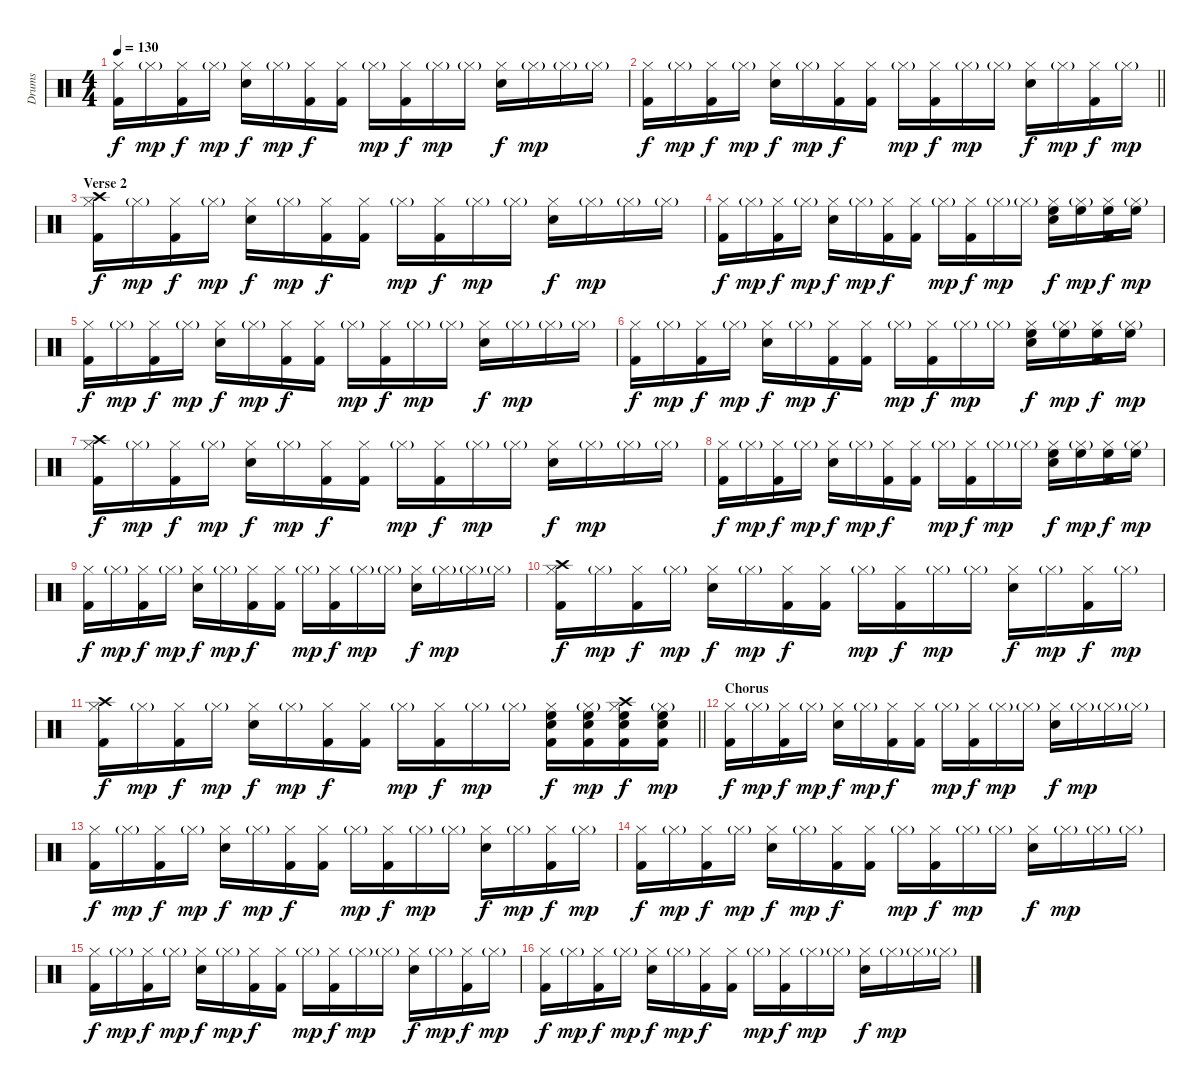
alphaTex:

\track ("Drums" "Drums") {instrument percussion}
\staff {score}
\articulation defaults
\ts (4 4)
\tempo 130
\clef neutral
\ks c
("Hi-Hat (closed)" "Kick (hit) 2").16{dy f} "Hi-Hat (closed)"{g}.16{dy mp} ("Hi-Hat (closed)" "Kick (hit) 2").16{dy f} "Hi-Hat (closed)"{g}.16{dy mp} ("Hi-Hat (closed)" "Snare (hit) 2").16{dy f} "Hi-Hat (closed)"{g}.16{dy mp} ("Hi-Hat (closed)" "Kick (hit) 2").16{dy f} ("Hi-Hat (closed)" "Kick (hit) 2").16 "Hi-Hat (closed)"{g}.16{dy mp} ("Hi-Hat (closed)" "Kick (hit) 2").16{dy f} "Hi-Hat (closed)"{g}.16{dy mp} "Hi-Hat (closed)"{g}.16 ("Hi-Hat (closed)" "Snare (hit) 2").16{dy f} "Hi-Hat (closed)"{g}.16{dy mp} "Hi-Hat (closed)"{g}.16 "Hi-Hat (closed)"{g}.16 |
\barLineRight lightlight
("Hi-Hat (closed)" "Kick (hit) 2").16{dy f} "Hi-Hat (closed)"{g}.16{dy mp} ("Hi-Hat (closed)" "Kick (hit) 2").16{dy f} "Hi-Hat (closed)"{g}.16{dy mp} ("Hi-Hat (closed)" "Snare (hit) 2").16{dy f} "Hi-Hat (closed)"{g}.16{dy mp} ("Hi-Hat (closed)" "Kick (hit) 2").16{dy f} ("Hi-Hat (closed)" "Kick (hit) 2").16 "Hi-Hat (closed)"{g}.16{dy mp} ("Hi-Hat (closed)" "Kick (hit) 2").16{dy f} "Hi-Hat (closed)"{g}.16{dy mp} "Hi-Hat (closed)"{g}.16 ("Hi-Hat (closed)" "Snare (hit) 2").16{dy f} "Hi-Hat (closed)"{g}.16{dy mp} ("Hi-Hat (closed)" "Kick (hit) 2").16{dy f} "Hi-Hat (closed)"{g}.16{dy mp} |
\section ("" "Verse 2")
("Hi-Hat (closed)" "Kick (hit) 2" "Crash high (hit)").16{dy f} "Hi-Hat (closed)"{g}.16{dy mp} ("Hi-Hat (closed)" "Kick (hit) 2").16{dy f} "Hi-Hat (closed)"{g}.16{dy mp} ("Hi-Hat (closed)" "Snare (hit) 2").16{dy f} "Hi-Hat (closed)"{g}.16{dy mp} ("Hi-Hat (closed)" "Kick (hit) 2").16{dy f} ("Hi-Hat (closed)" "Kick (hit) 2").16 "Hi-Hat (closed)"{g}.16{dy mp} ("Hi-Hat (closed)" "Kick (hit) 2").16{dy f} "Hi-Hat (closed)"{g}.16{dy mp} "Hi-Hat (closed)"{g}.16 ("Hi-Hat (closed)" "Snare (hit) 2").16{dy f} "Hi-Hat (closed)"{g}.16{dy mp} "Hi-Hat (closed)"{g}.16 "Hi-Hat (closed)"{g}.16 |
("Hi-Hat (closed)" "Kick (hit) 2").16{dy f} "Hi-Hat (closed)"{g}.16{dy mp} ("Hi-Hat (closed)" "Kick (hit) 2").16{dy f} "Hi-Hat (closed)"{g}.16{dy mp} ("Hi-Hat (closed)" "Snare (hit) 2").16{dy f} "Hi-Hat (closed)"{g}.16{dy mp} ("Hi-Hat (closed)" "Kick (hit) 2").16{dy f} ("Hi-Hat (closed)" "Kick (hit) 2").16 "Hi-Hat (closed)"{g}.16{dy mp} ("Hi-Hat (closed)" "Kick (hit) 2").16{dy f} "Hi-Hat (closed)"{g}.16{dy mp} "Hi-Hat (closed)"{g}.16 ("Hi-Hat (closed)" "Snare (hit) 2" "High Floor Tom (hit)").16{dy f} ("Hi-Hat (closed)"{g} "High Floor Tom (hit)").16{dy mp} ("Hi-Hat (closed)" "Kick (hit) 2" "High Floor Tom (hit)").16{dy f} ("Hi-Hat (closed)"{g} "High Floor Tom (hit)").16{dy mp} |
("Hi-Hat (closed)" "Kick (hit) 2").16{dy f} "Hi-Hat (closed)"{g}.16{dy mp} ("Hi-Hat (closed)" "Kick (hit) 2").16{dy f} "Hi-Hat (closed)"{g}.16{dy mp} ("Hi-Hat (closed)" "Snare (hit) 2").16{dy f} "Hi-Hat (closed)"{g}.16{dy mp} ("Hi-Hat (closed)" "Kick (hit) 2").16{dy f} ("Hi-Hat (closed)" "Kick (hit) 2").16 "Hi-Hat (closed)"{g}.16{dy mp} ("Hi-Hat (closed)" "Kick (hit) 2").16{dy f} "Hi-Hat (closed)"{g}.16{dy mp} "Hi-Hat (closed)"{g}.16 ("Hi-Hat (closed)" "Snare (hit) 2").16{dy f} "Hi-Hat (closed)"{g}.16{dy mp} "Hi-Hat (closed)"{g}.16 "Hi-Hat (closed)"{g}.16 |
("Hi-Hat (closed)" "Kick (hit) 2").16{dy f} "Hi-Hat (closed)"{g}.16{dy mp} ("Hi-Hat (closed)" "Kick (hit) 2").16{dy f} "Hi-Hat (closed)"{g}.16{dy mp} ("Hi-Hat (closed)" "Snare (hit) 2").16{dy f} "Hi-Hat (closed)"{g}.16{dy mp} ("Hi-Hat (closed)" "Kick (hit) 2").16{dy f} ("Hi-Hat (closed)" "Kick (hit) 2").16 "Hi-Hat (closed)"{g}.16{dy mp} ("Hi-Hat (closed)" "Kick (hit) 2").16{dy f} "Hi-Hat (closed)"{g}.16{dy mp} "Hi-Hat (closed)"{g}.16 ("Hi-Hat (closed)" "Snare (hit) 2" "High Floor Tom (hit)").16{dy f} ("Hi-Hat (closed)"{g} "High Floor Tom (hit)").16{dy mp} ("Hi-Hat (closed)" "Kick (hit) 2" "High Floor Tom (hit)").16{dy f} ("Hi-Hat (closed)"{g} "High Floor Tom (hit)").16{dy mp} |
("Hi-Hat (closed)" "Kick (hit) 2" "Crash high (hit)").16{dy f} "Hi-Hat (closed)"{g}.16{dy mp} ("Hi-Hat (closed)" "Kick (hit) 2").16{dy f} "Hi-Hat (closed)"{g}.16{dy mp} ("Hi-Hat (closed)" "Snare (hit) 2").16{dy f} "Hi-Hat (closed)"{g}.16{dy mp} ("Hi-Hat (closed)" "Kick (hit) 2").16{dy f} ("Hi-Hat (closed)" "Kick (hit) 2").16 "Hi-Hat (closed)"{g}.16{dy mp} ("Hi-Hat (closed)" "Kick (hit) 2").16{dy f} "Hi-Hat (closed)"{g}.16{dy mp} "Hi-Hat (closed)"{g}.16 ("Hi-Hat (closed)" "Snare (hit) 2").16{dy f} "Hi-Hat (closed)"{g}.16{dy mp} "Hi-Hat (closed)"{g}.16 "Hi-Hat (closed)"{g}.16 |
("Hi-Hat (closed)" "Kick (hit) 2").16{dy f} "Hi-Hat (closed)"{g}.16{dy mp} ("Hi-Hat (closed)" "Kick (hit) 2").16{dy f} "Hi-Hat (closed)"{g}.16{dy mp} ("Hi-Hat (closed)" "Snare (hit) 2").16{dy f} "Hi-Hat (closed)"{g}.16{dy mp} ("Hi-Hat (closed)" "Kick (hit) 2").16{dy f} ("Hi-Hat (closed)" "Kick (hit) 2").16 "Hi-Hat (closed)"{g}.16{dy mp} ("Hi-Hat (closed)" "Kick (hit) 2").16{dy f} "Hi-Hat (closed)"{g}.16{dy mp} "Hi-Hat (closed)"{g}.16 ("Hi-Hat (closed)" "Snare (hit) 2" "High Floor Tom (hit)").16{dy f} ("Hi-Hat (closed)"{g} "High Floor Tom (hit)").16{dy mp} ("Hi-Hat (closed)" "Kick (hit) 2" "High Floor Tom (hit)").16{dy f} ("Hi-Hat (closed)"{g} "High Floor Tom (hit)").16{dy mp} |
("Hi-Hat (closed)" "Kick (hit) 2").16{dy f} "Hi-Hat (closed)"{g}.16{dy mp} ("Hi-Hat (closed)" "Kick (hit) 2").16{dy f} "Hi-Hat (closed)"{g}.16{dy mp} ("Hi-Hat (closed)" "Snare (hit) 2").16{dy f} "Hi-Hat (closed)"{g}.16{dy mp} ("Hi-Hat (closed)" "Kick (hit) 2").16{dy f} ("Hi-Hat (closed)" "Kick (hit) 2").16 "Hi-Hat (closed)"{g}.16{dy mp} ("Hi-Hat (closed)" "Kick (hit) 2").16{dy f} "Hi-Hat (closed)"{g}.16{dy mp} "Hi-Hat (closed)"{g}.16 ("Hi-Hat (closed)" "Snare (hit) 2").16{dy f} "Hi-Hat (closed)"{g}.16{dy mp} "Hi-Hat (closed)"{g}.16 "Hi-Hat (closed)"{g}.16 |
("Hi-Hat (closed)" "Kick (hit) 2" "Crash high (hit)").16{dy f} "Hi-Hat (closed)"{g}.16{dy mp} ("Hi-Hat (closed)" "Kick (hit) 2").16{dy f} "Hi-Hat (closed)"{g}.16{dy mp} ("Hi-Hat (closed)" "Snare (hit) 2").16{dy f} "Hi-Hat (closed)"{g}.16{dy mp} ("Hi-Hat (closed)" "Kick (hit) 2").16{dy f} ("Hi-Hat (closed)" "Kick (hit) 2").16 "Hi-Hat (closed)"{g}.16{dy mp} ("Hi-Hat (closed)" "Kick (hit) 2").16{dy f} "Hi-Hat (closed)"{g}.16{dy mp} "Hi-Hat (closed)"{g}.16 ("Hi-Hat (closed)" "Snare (hit) 2").16{dy f} "Hi-Hat (closed)"{g}.16{dy mp} ("Hi-Hat (closed)" "Kick (hit) 2").16{dy f} "Hi-Hat (closed)"{g}.16{dy mp} |
\barLineRight lightlight
("Hi-Hat (closed)" "Kick (hit) 2" "Crash high (hit)").16{dy f} "Hi-Hat (closed)"{g}.16{dy mp} ("Hi-Hat (closed)" "Kick (hit) 2").16{dy f} "Hi-Hat (closed)"{g}.16{dy mp} ("Hi-Hat (closed)" "Snare (hit) 2").16{dy f} "Hi-Hat (closed)"{g}.16{dy mp} ("Hi-Hat (closed)" "Kick (hit) 2").16{dy f} ("Hi-Hat (closed)" "Kick (hit) 2").16 "Hi-Hat (closed)"{g}.16{dy mp} ("Hi-Hat (closed)" "Kick (hit) 2").16{dy f} "Hi-Hat (closed)"{g}.16{dy mp} "Hi-Hat (closed)"{g}.16 ("Hi-Hat (closed)" "Snare (hit) 2" "High Floor Tom (hit)" "Kick (hit) 2").16{dy f} ("Hi-Hat (closed)"{g} "Snare (hit) 2" "High Floor Tom (hit)" "Kick (hit) 2").16{dy mp} ("Hi-Hat (closed)" "Snare (hit) 2" "High Floor Tom (hit)" "Kick (hit) 2" "Crash high (hit)").16{dy f} ("Hi-Hat (closed)"{g} "Snare (hit) 2" "High Floor Tom (hit)" "Kick (hit) 2").16{dy mp} |
\section ("" "Chorus")
("Hi-Hat (closed)" "Kick (hit) 2").16{dy f} "Hi-Hat (closed)"{g}.16{dy mp} ("Hi-Hat (closed)" "Kick (hit) 2").16{dy f} "Hi-Hat (closed)"{g}.16{dy mp} ("Hi-Hat (closed)" "Snare (hit) 2").16{dy f} "Hi-Hat (closed)"{g}.16{dy mp} ("Hi-Hat (closed)" "Kick (hit) 2").16{dy f} ("Hi-Hat (closed)" "Kick (hit) 2").16 "Hi-Hat (closed)"{g}.16{dy mp} ("Hi-Hat (closed)" "Kick (hit) 2").16{dy f} "Hi-Hat (closed)"{g}.16{dy mp} "Hi-Hat (closed)"{g}.16 ("Hi-Hat (closed)" "Snare (hit) 2").16{dy f} "Hi-Hat (closed)"{g}.16{dy mp} "Hi-Hat (closed)"{g}.16 "Hi-Hat (closed)"{g}.16 |
("Hi-Hat (closed)" "Kick (hit) 2").16{dy f} "Hi-Hat (closed)"{g}.16{dy mp} ("Hi-Hat (closed)" "Kick (hit) 2").16{dy f} "Hi-Hat (closed)"{g}.16{dy mp} ("Hi-Hat (closed)" "Snare (hit) 2").16{dy f} "Hi-Hat (closed)"{g}.16{dy mp} ("Hi-Hat (closed)" "Kick (hit) 2").16{dy f} ("Hi-Hat (closed)" "Kick (hit) 2").16 "Hi-Hat (closed)"{g}.16{dy mp} ("Hi-Hat (closed)" "Kick (hit) 2").16{dy f} "Hi-Hat (closed)"{g}.16{dy mp} "Hi-Hat (closed)"{g}.16 ("Hi-Hat (closed)" "Snare (hit) 2").16{dy f} "Hi-Hat (closed)"{g}.16{dy mp} ("Hi-Hat (closed)" "Kick (hit) 2").16{dy f} "Hi-Hat (closed)"{g}.16{dy mp} |
("Hi-Hat (closed)" "Kick (hit) 2").16{dy f} "Hi-Hat (closed)"{g}.16{dy mp} ("Hi-Hat (closed)" "Kick (hit) 2").16{dy f} "Hi-Hat (closed)"{g}.16{dy mp} ("Hi-Hat (closed)" "Snare (hit) 2").16{dy f} "Hi-Hat (closed)"{g}.16{dy mp} ("Hi-Hat (closed)" "Kick (hit) 2").16{dy f} ("Hi-Hat (closed)" "Kick (hit) 2").16 "Hi-Hat (closed)"{g}.16{dy mp} ("Hi-Hat (closed)" "Kick (hit) 2").16{dy f} "Hi-Hat (closed)"{g}.16{dy mp} "Hi-Hat (closed)"{g}.16 ("Hi-Hat (closed)" "Snare (hit) 2").16{dy f} "Hi-Hat (closed)"{g}.16{dy mp} "Hi-Hat (closed)"{g}.16 "Hi-Hat (closed)"{g}.16 |
("Hi-Hat (closed)" "Kick (hit) 2").16{dy f} "Hi-Hat (closed)"{g}.16{dy mp} ("Hi-Hat (closed)" "Kick (hit) 2").16{dy f} "Hi-Hat (closed)"{g}.16{dy mp} ("Hi-Hat (closed)" "Snare (hit) 2").16{dy f} "Hi-Hat (closed)"{g}.16{dy mp} ("Hi-Hat (closed)" "Kick (hit) 2").16{dy f} ("Hi-Hat (closed)" "Kick (hit) 2").16 "Hi-Hat (closed)"{g}.16{dy mp} ("Hi-Hat (closed)" "Kick (hit) 2").16{dy f} "Hi-Hat (closed)"{g}.16{dy mp} "Hi-Hat (closed)"{g}.16 ("Hi-Hat (closed)" "Snare (hit) 2").16{dy f} "Hi-Hat (closed)"{g}.16{dy mp} ("Hi-Hat (closed)" "Kick (hit) 2").16{dy f} "Hi-Hat (closed)"{g}.16{dy mp} |
("Hi-Hat (closed)" "Kick (hit) 2").16{dy f} "Hi-Hat (closed)"{g}.16{dy mp} ("Hi-Hat (closed)" "Kick (hit) 2").16{dy f} "Hi-Hat (closed)"{g}.16{dy mp} ("Hi-Hat (closed)" "Snare (hit) 2").16{dy f} "Hi-Hat (closed)"{g}.16{dy mp} ("Hi-Hat (closed)" "Kick (hit) 2").16{dy f} ("Hi-Hat (closed)" "Kick (hit) 2").16 "Hi-Hat (closed)"{g}.16{dy mp} ("Hi-Hat (closed)" "Kick (hit) 2").16{dy f} "Hi-Hat (closed)"{g}.16{dy mp} "Hi-Hat (closed)"{g}.16 ("Hi-Hat (closed)" "Snare (hit) 2").16{dy f} "Hi-Hat (closed)"{g}.16{dy mp} "Hi-Hat (closed)"{g}.16 "Hi-Hat (closed)"{g}.16
